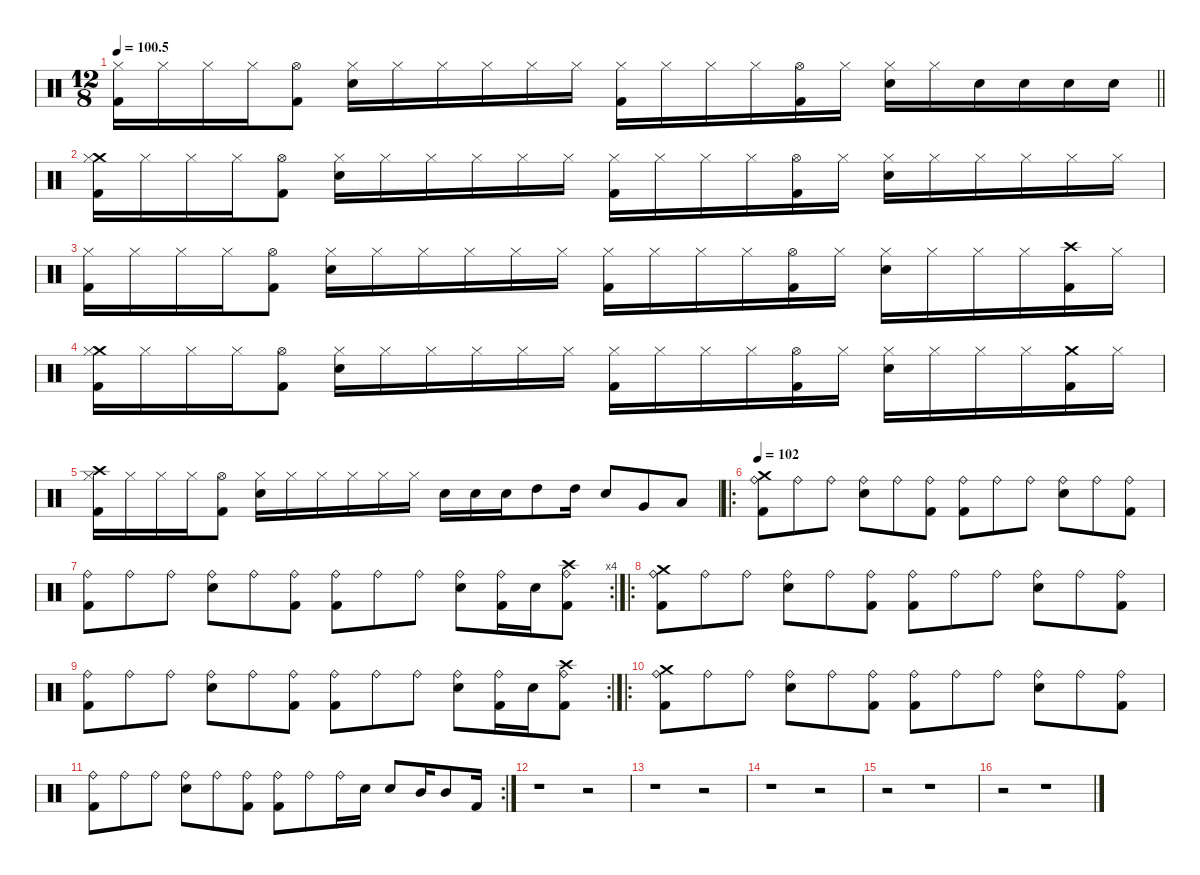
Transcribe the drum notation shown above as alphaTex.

\defaultSystemsLayout 4
\hideDynamics
\bracketExtendMode nobrackets
\singleTrackTrackNamePolicy hidden
\multiTrackTrackNamePolicy hidden
\firstSystemTrackNameMode fullname
\otherSystemsTrackNameOrientation horizontal
\track ("Drum set" "drm.") {instrument percussion}
\staff {score}
\articulation defaults
\ts (12 8)
\tempo
100.5
\accidentals auto
\clef neutral
\ottava regular
\simile none
\barLineRight lightlight
\ks aminor
("Hi-Hat (closed)" "Kick (hit) 2").16{dy f beam Down} "Hi-Hat (closed)".16{beam Down} "Hi-Hat (closed)".16{beam Down} "Hi-Hat (closed)".16{beam Down} ("Hi-Hat (open)" "Kick (hit) 2").8{beam Down} ("Hi-Hat (closed)" "Snare (hit) 2").16{beam Down} "Hi-Hat (closed)".16{beam Down} "Hi-Hat (closed)".16{beam Down} "Hi-Hat (closed)".16{beam Down} "Hi-Hat (closed)".16{beam Down} "Hi-Hat (closed)".16{beam Down} ("Hi-Hat (closed)" "Kick (hit) 2").16{beam Down} "Hi-Hat (closed)".16{beam Down} "Hi-Hat (closed)".16{beam Down} "Hi-Hat (closed)".16{beam Down} ("Hi-Hat (open)" "Kick (hit) 2").16{beam Down} "Hi-Hat (closed)".16{beam Down} ("Hi-Hat (closed)" "Snare (hit) 2").16{beam Down} "Hi-Hat (closed)".16{beam Down} "Snare (hit) 2".16{beam Down} "Snare (hit) 2".16{beam Down} "Snare (hit) 2".16{beam Down} "Snare (hit) 2".16{beam Down} |
("Crash medium (hit)" "Hi-Hat (closed)" "Kick (hit) 2").16{beam Down} "Hi-Hat (closed)".16{beam Down} "Hi-Hat (closed)".16{beam Down} "Hi-Hat (closed)".16{beam Down} ("Hi-Hat (open)" "Kick (hit) 2").8{beam Down} ("Hi-Hat (closed)" "Snare (hit) 2").16{beam Down} "Hi-Hat (closed)".16{beam Down} "Hi-Hat (closed)".16{beam Down} "Hi-Hat (closed)".16{beam Down} "Hi-Hat (closed)".16{beam Down} "Hi-Hat (closed)".16{beam Down} ("Hi-Hat (closed)" "Kick (hit) 2").16{beam Down} "Hi-Hat (closed)".16{beam Down} "Hi-Hat (closed)".16{beam Down} "Hi-Hat (closed)".16{beam Down} ("Hi-Hat (open)" "Kick (hit) 2").16{beam Down} "Hi-Hat (closed)".16{beam Down} ("Hi-Hat (closed)" "Snare (hit) 2").16{beam Down} "Hi-Hat (closed)".16{beam Down} "Hi-Hat (closed)".16{beam Down} "Hi-Hat (closed)".16{beam Down} "Hi-Hat (closed)".16{beam Down} "Hi-Hat (closed)".16{beam Down} |
("Hi-Hat (closed)" "Kick (hit) 2").16{beam Down} "Hi-Hat (closed)".16{beam Down} "Hi-Hat (closed)".16{beam Down} "Hi-Hat (closed)".16{beam Down} ("Hi-Hat (open)" "Kick (hit) 2").8{beam Down} ("Hi-Hat (closed)" "Snare (hit) 2").16{beam Down} "Hi-Hat (closed)".16{beam Down} "Hi-Hat (closed)".16{beam Down} "Hi-Hat (closed)".16{beam Down} "Hi-Hat (closed)".16{beam Down} "Hi-Hat (closed)".16{beam Down} ("Hi-Hat (closed)" "Kick (hit) 2").16{beam Down} "Hi-Hat (closed)".16{beam Down} "Hi-Hat (closed)".16{beam Down} "Hi-Hat (closed)".16{beam Down} ("Hi-Hat (open)" "Kick (hit) 2").16{beam Down} "Hi-Hat (closed)".16{beam Down} ("Hi-Hat (closed)" "Snare (hit) 2").16{beam Down} "Hi-Hat (closed)".16{beam Down} "Hi-Hat (closed)".16{beam Down} "Hi-Hat (closed)".16{beam Down} ("Crash high (hit)" "Kick (hit) 2").16{beam Down} "Hi-Hat (closed)".16{beam Down} |
("Crash medium (hit)" "Hi-Hat (closed)" "Kick (hit) 2").16{beam Down} "Hi-Hat (closed)".16{beam Down} "Hi-Hat (closed)".16{beam Down} "Hi-Hat (closed)".16{beam Down} ("Hi-Hat (open)" "Kick (hit) 2").8{beam Down} ("Hi-Hat (closed)" "Snare (hit) 2").16{beam Down} "Hi-Hat (closed)".16{beam Down} "Hi-Hat (closed)".16{beam Down} "Hi-Hat (closed)".16{beam Down} "Hi-Hat (closed)".16{beam Down} "Hi-Hat (closed)".16{beam Down} ("Hi-Hat (closed)" "Kick (hit) 2").16{beam Down} "Hi-Hat (closed)".16{beam Down} "Hi-Hat (closed)".16{beam Down} "Hi-Hat (closed)".16{beam Down} ("Hi-Hat (open)" "Kick (hit) 2").16{beam Down} "Hi-Hat (closed)".16{beam Down} ("Hi-Hat (closed)" "Snare (hit) 2").16{beam Down} "Hi-Hat (closed)".16{beam Down} "Hi-Hat (closed)".16{beam Down} "Hi-Hat (closed)".16{beam Down} ("Crash medium (hit)" "Kick (hit) 2").16{beam Down} "Hi-Hat (closed)".16{beam Down} |
("Crash high (hit)" "Hi-Hat (closed)" "Kick (hit) 2").16{beam Down} "Hi-Hat (closed)".16{beam Down} "Hi-Hat (closed)".16{beam Down} "Hi-Hat (closed)".16{beam Down} ("Hi-Hat (open)" "Kick (hit) 2").8{beam Down} ("Hi-Hat (closed)" "Snare (hit) 2").16{beam Down} "Hi-Hat (closed)".16{beam Down} "Hi-Hat (closed)".16{beam Down} "Hi-Hat (closed)".16{beam Down} "Hi-Hat (closed)".16{beam Down} "Hi-Hat (closed)".16{beam Down} "Snare (hit) 2".16{beam Down} "Snare (hit) 2".16{beam Down} "Snare (hit) 2".16{beam Down} "High Tom (hit)".8{beam Down} "High Tom (hit)".16{beam Down} "Snare (hit) 2".8{beam Up} "Very Low Tom (hit)".8{beam Up} "Low Floor Tom (hit)".8{beam Up} |
\ro
\tempo 102
("Crash medium (hit)" "Ride (bell)" "Kick (hit) 2").8{beam Down} "Ride (bell)".8{beam Down} "Ride (bell)".8{beam Down} ("Ride (bell)" "Snare (hit) 2").8{beam Down} "Ride (bell)".8{beam Down} ("Ride (bell)" "Kick (hit) 2").8{beam Down} ("Ride (bell)" "Kick (hit) 2").8{beam Down} "Ride (bell)".8{beam Down} "Ride (bell)".8{beam Down} ("Ride (bell)" "Snare (hit) 2").8{beam Down} "Ride (bell)".8{beam Down} ("Ride (bell)" "Kick (hit) 2").8{beam Down} |
\rc 4
("Ride (bell)" "Kick (hit) 2").8{beam Down} "Ride (bell)".8{beam Down} "Ride (bell)".8{beam Down} ("Ride (bell)" "Snare (hit) 2").8{beam Down} "Ride (bell)".8{beam Down} ("Ride (bell)" "Kick (hit) 2").8{beam Down} ("Ride (bell)" "Kick (hit) 2").8{beam Down} "Ride (bell)".8{beam Down} "Ride (bell)".8{beam Down} ("Ride (bell)" "Snare (hit) 2").8{beam Down} ("Ride (bell)" "Kick (hit) 2").16{beam Down} "Snare (hit) 2".16{beam Down} ("Crash high (hit)" "Ride (bell)" "Kick (hit) 2").8{beam Down} |
\ro
("Crash medium (hit)" "Ride (bell)" "Kick (hit) 2").8{beam Down} "Ride (bell)".8{beam Down} "Ride (bell)".8{beam Down} ("Ride (bell)" "Snare (hit) 2").8{beam Down} "Ride (bell)".8{beam Down} ("Ride (bell)" "Kick (hit) 2").8{beam Down} ("Ride (bell)" "Kick (hit) 2").8{beam Down} "Ride (bell)".8{beam Down} "Ride (bell)".8{beam Down} ("Ride (bell)" "Snare (hit) 2").8{beam Down} "Ride (bell)".8{beam Down} ("Ride (bell)" "Kick (hit) 2").8{beam Down} |
\rc 2
("Ride (bell)" "Kick (hit) 2").8{beam Down} "Ride (bell)".8{beam Down} "Ride (bell)".8{beam Down} ("Ride (bell)" "Snare (hit) 2").8{beam Down} "Ride (bell)".8{beam Down} ("Ride (bell)" "Kick (hit) 2").8{beam Down} ("Ride (bell)" "Kick (hit) 2").8{beam Down} "Ride (bell)".8{beam Down} "Ride (bell)".8{beam Down} ("Ride (bell)" "Snare (hit) 2").8{beam Down} ("Ride (bell)" "Kick (hit) 2").16{beam Down} "Snare (hit) 2".16{beam Down} ("Crash high (hit)" "Ride (bell)" "Kick (hit) 2").8{beam Down} |
\ro
("Crash medium (hit)" "Ride (bell)" "Kick (hit) 2").8{beam Down} "Ride (bell)".8{beam Down} "Ride (bell)".8{beam Down} ("Ride (bell)" "Snare (hit) 2").8{beam Down} "Ride (bell)".8{beam Down} ("Ride (bell)" "Kick (hit) 2").8{beam Down} ("Ride (bell)" "Kick (hit) 2").8{beam Down} "Ride (bell)".8{beam Down} "Ride (bell)".8{beam Down} ("Ride (bell)" "Snare (hit) 2").8{beam Down} "Ride (bell)".8{beam Down} ("Ride (bell)" "Kick (hit) 2").8{beam Down} |
\rc 2
("Ride (bell)" "Kick (hit) 2").8{beam Down} "Ride (bell)".8{beam Down} "Ride (bell)".8{beam Down} ("Ride (bell)" "Snare (hit) 2").8{beam Down} "Ride (bell)".8{beam Down} ("Ride (bell)" "Kick (hit) 2").8{beam Down} ("Ride (bell)" "Kick (hit) 2").8{beam Down} "Ride (bell)".8{beam Down} "Ride (bell)".16{beam Down} "Snare (hit) 2".16{beam Down} "Snare (hit) 2".8{beam Up} "Mid Tom (hit)".16{beam Up} "Mid Tom (hit)".8{beam Up} "Kick (hit) 2".16{beam Up} |
r.1{beam Down} r.2{beam Down} |
r.1{beam Down} r.2{beam Down} |
r.1{beam Down} r.2{beam Down} |
r.2{beam Down} r.1{beam Down} |
r.2{beam Down} r.1{beam Down}
